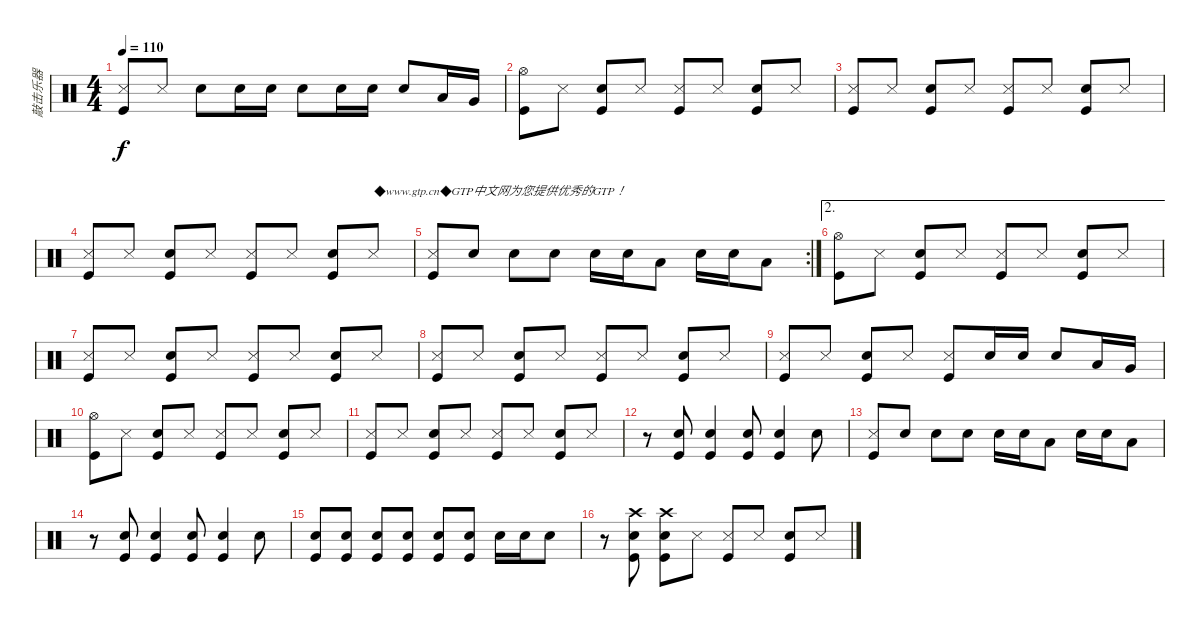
\track ("敲击乐器" "敲击乐器") {instrument percussion}
\staff {score}
\articulation defaults
\ts (4 4)
\tempo 110
\clef neutral
\ks c
("Snare (side stick) 3" "Kick (hit)").8{dy f} "Snare (side stick) 3".8 "Snare (hit) 2".8 "Snare (hit) 2".16 "Snare (hit) 2".16 "Snare (hit) 2".8 "Snare (hit) 2".16 "Snare (hit) 2".16 "Snare (hit) 2".8 "Low Tom (hit)".16 "Very Low Tom (hit)".16 |
("Hi-Hat (open)" "Kick (hit)").8 "Snare (side stick) 3".8 ("Snare (hit) 2" "Kick (hit)").8 "Snare (side stick) 3".8 ("Snare (side stick) 3" "Kick (hit)").8 "Snare (side stick) 3".8 ("Snare (hit) 2" "Kick (hit)").8 "Snare (side stick) 3".8 |
("Snare (side stick) 3" "Kick (hit)").8 "Snare (side stick) 3".8 ("Snare (hit) 2" "Kick (hit)").8 "Snare (side stick) 3".8 ("Snare (side stick) 3" "Kick (hit)").8 "Snare (side stick) 3".8 ("Snare (hit) 2" "Kick (hit)").8 "Snare (side stick) 3".8 |
("Snare (side stick) 3" "Kick (hit)").8 "Snare (side stick) 3".8 ("Snare (hit) 2" "Kick (hit)").8 "Snare (side stick) 3".8 ("Snare (side stick) 3" "Kick (hit)").8 "Snare (side stick) 3".8 ("Snare (hit) 2" "Kick (hit)").8 "Snare (side stick) 3".8{txt "◆www.gtp.cn◆GTP中文网为您提供优秀的GTP！"} |
\rc 2
("Snare (side stick) 3" "Kick (hit)").8 "Snare (hit) 2".8 "Snare (hit) 2".8 "Snare (hit) 2".8 "Snare (hit) 2".16 "Snare (hit) 2".16 "Low Tom (hit)".8 "Snare (hit) 2".16 "Snare (hit) 2".16 "Low Tom (hit)".8 |
\ae 2
("Hi-Hat (open)" "Kick (hit)").8 "Snare (side stick) 3".8 ("Snare (hit) 2" "Kick (hit)").8 "Snare (side stick) 3".8 ("Snare (side stick) 3" "Kick (hit)").8 "Snare (side stick) 3".8 ("Snare (hit) 2" "Kick (hit)").8 "Snare (side stick) 3".8 |
("Snare (side stick) 3" "Kick (hit)").8 "Snare (side stick) 3".8 ("Snare (hit) 2" "Kick (hit)").8 "Snare (side stick) 3".8 ("Snare (side stick) 3" "Kick (hit)").8 "Snare (side stick) 3".8 ("Snare (hit) 2" "Kick (hit)").8 "Snare (side stick) 3".8 |
("Snare (side stick) 3" "Kick (hit)").8 "Snare (side stick) 3".8 ("Snare (hit) 2" "Kick (hit)").8 "Snare (side stick) 3".8 ("Snare (side stick) 3" "Kick (hit)").8 "Snare (side stick) 3".8 ("Snare (hit) 2" "Kick (hit)").8 "Snare (side stick) 3".8 |
("Snare (side stick) 3" "Kick (hit)").8 "Snare (side stick) 3".8 ("Snare (hit) 2" "Kick (hit)").8 "Snare (side stick) 3".8 ("Snare (side stick) 3" "Kick (hit)").8 "Snare (hit) 2".16 "Snare (hit) 2".16 "Snare (hit) 2".8 "Low Tom (hit)".16 "Very Low Tom (hit)".16 |
("Hi-Hat (open)" "Kick (hit)").8 "Snare (side stick) 3".8 ("Snare (hit) 2" "Kick (hit)").8 "Snare (side stick) 3".8 ("Snare (side stick) 3" "Kick (hit)").8 "Snare (side stick) 3".8 ("Snare (hit) 2" "Kick (hit)").8 "Snare (side stick) 3".8 |
("Snare (side stick) 3" "Kick (hit)").8 "Snare (side stick) 3".8 ("Snare (hit) 2" "Kick (hit)").8 "Snare (side stick) 3".8 ("Snare (side stick) 3" "Kick (hit)").8 "Snare (side stick) 3".8 ("Snare (hit) 2" "Kick (hit)").8 "Snare (side stick) 3".8 |
r.8 ("Snare (hit) 2" "Kick (hit)").8 ("Snare (hit) 2" "Kick (hit)").4 ("Snare (hit) 2" "Kick (hit)").8 ("Snare (hit) 2" "Kick (hit)").4 "Snare (hit) 2".8 |
("Snare (side stick) 3" "Kick (hit)").8 "Snare (hit) 2".8 "Snare (hit) 2".8 "Snare (hit) 2".8 "Snare (hit) 2".16 "Snare (hit) 2".16 "Low Tom (hit)".8 "Snare (hit) 2".16 "Snare (hit) 2".16 "Low Tom (hit)".8 |
r.8 ("Snare (hit) 2" "Kick (hit)").8 ("Snare (hit) 2" "Kick (hit)").4 ("Snare (hit) 2" "Kick (hit)").8 ("Snare (hit) 2" "Kick (hit)").4 "Snare (hit) 2".8 |
("Snare (hit) 2" "Kick (hit)").8 ("Snare (hit) 2" "Kick (hit)").8 ("Snare (hit) 2" "Kick (hit)").8 ("Snare (hit) 2" "Kick (hit)").8 ("Snare (hit) 2" "Kick (hit)").8 ("Snare (hit) 2" "Kick (hit)").8 "Snare (hit) 2".16 "Snare (hit) 2".16 "Snare (hit) 2".8 |
r.8 ("Crash high (hit)" "Kick (hit)" "Snare (hit) 2").8 ("Crash high (hit)" "Kick (hit)" "Snare (hit) 2").8 "Snare (side stick) 3".8 ("Snare (side stick) 3" "Kick (hit)").8 "Snare (side stick) 3".8 ("Snare (hit) 2" "Kick (hit)").8 "Snare (side stick) 3".8
